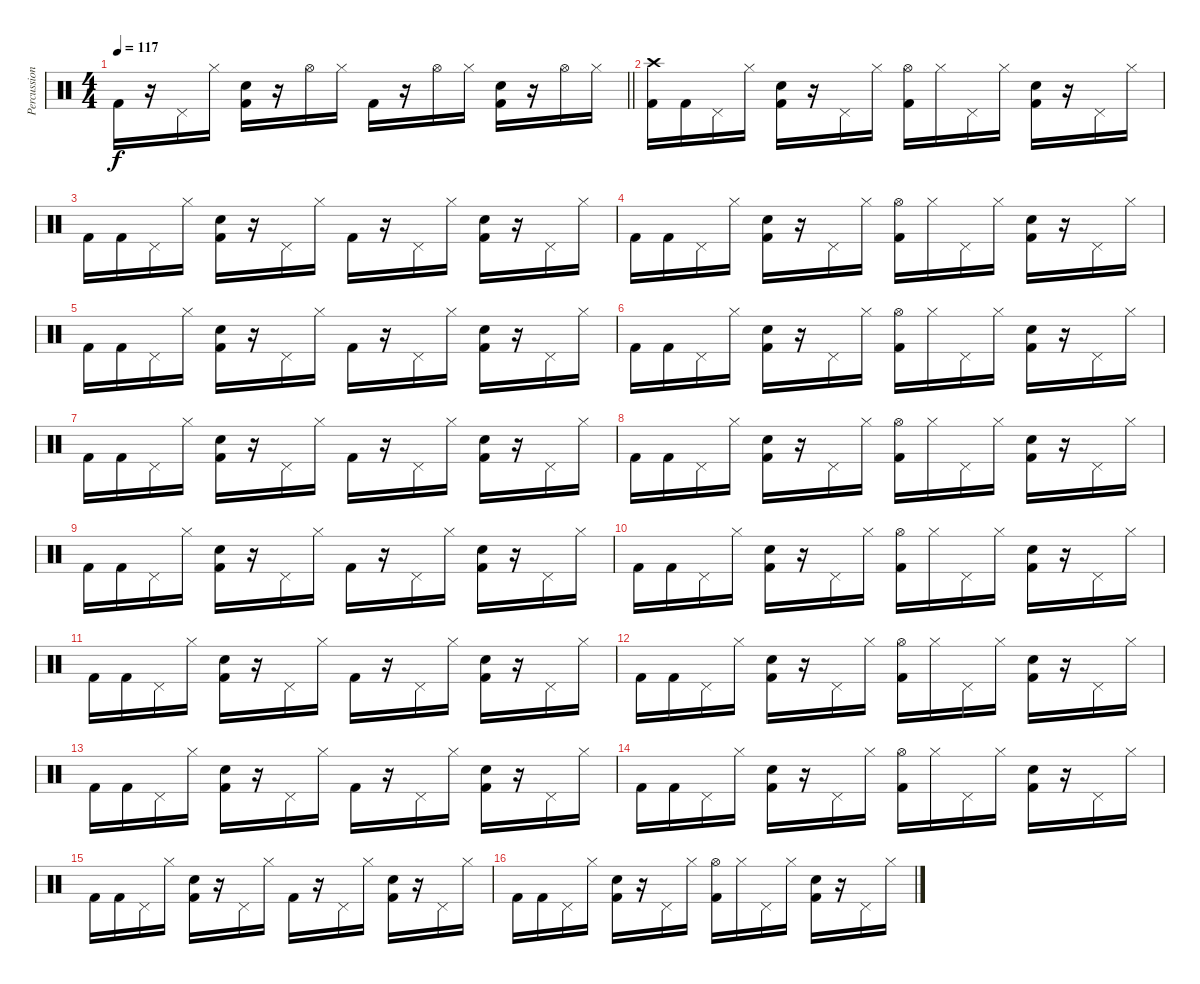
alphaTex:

\track ("Percussion" "Percussion") {instrument percussion}
\staff {score}
\articulation defaults
\ts (4 4)
\tempo 117
\clef neutral
\barLineRight lightlight
\ks c "Kick (hit) 2".16{dy f}
r.16 "Pedal Hi-Hat (hit)".16 "Hi-Hat (closed)".16 ("Snare (hit) 2" "Kick (hit) 2").16 r.16 "Hi-Hat (open)".16 "Hi-Hat (closed)".16 "Kick (hit) 2".16 r.16 "Hi-Hat (open)".16 "Hi-Hat (closed)".16 ("Snare (hit) 2" "Kick (hit) 2").16 r.16 "Hi-Hat (open)".16 "Hi-Hat (closed)".16 |
("Crash high (hit)" "Kick (hit) 2").16 "Kick (hit) 2".16 "Pedal Hi-Hat (hit)".16 "Hi-Hat (closed)".16 ("Snare (hit) 2" "Kick (hit) 2").16 r.16 "Pedal Hi-Hat (hit)".16 "Hi-Hat (closed)".16 ("Hi-Hat (open)" "Kick (hit) 2").16 "Hi-Hat (closed)".16 "Pedal Hi-Hat (hit)".16 "Hi-Hat (closed)".16 ("Snare (hit) 2" "Kick (hit) 2").16 r.16 "Pedal Hi-Hat (hit)".16 "Hi-Hat (closed)".16 |
"Kick (hit) 2".16 "Kick (hit) 2".16 "Pedal Hi-Hat (hit)".16 "Hi-Hat (closed)".16 ("Snare (hit) 2" "Kick (hit) 2").16 r.16 "Pedal Hi-Hat (hit)".16 "Hi-Hat (closed)".16 "Kick (hit) 2".16 r.16 "Pedal Hi-Hat (hit)".16 "Hi-Hat (closed)".16 ("Snare (hit) 2" "Kick (hit) 2").16 r.16 "Pedal Hi-Hat (hit)".16 "Hi-Hat (closed)".16 |
"Kick (hit) 2".16 "Kick (hit) 2".16 "Pedal Hi-Hat (hit)".16 "Hi-Hat (closed)".16 ("Snare (hit) 2" "Kick (hit) 2").16 r.16 "Pedal Hi-Hat (hit)".16 "Hi-Hat (closed)".16 ("Hi-Hat (open)" "Kick (hit) 2").16 "Hi-Hat (closed)".16 "Pedal Hi-Hat (hit)".16 "Hi-Hat (closed)".16 ("Snare (hit) 2" "Kick (hit) 2").16 r.16 "Pedal Hi-Hat (hit)".16 "Hi-Hat (closed)".16 |
"Kick (hit) 2".16 "Kick (hit) 2".16 "Pedal Hi-Hat (hit)".16 "Hi-Hat (closed)".16 ("Snare (hit) 2" "Kick (hit) 2").16 r.16 "Pedal Hi-Hat (hit)".16 "Hi-Hat (closed)".16 "Kick (hit) 2".16 r.16 "Pedal Hi-Hat (hit)".16 "Hi-Hat (closed)".16 ("Snare (hit) 2" "Kick (hit) 2").16 r.16 "Pedal Hi-Hat (hit)".16 "Hi-Hat (closed)".16 |
"Kick (hit) 2".16 "Kick (hit) 2".16 "Pedal Hi-Hat (hit)".16 "Hi-Hat (closed)".16 ("Snare (hit) 2" "Kick (hit) 2").16 r.16 "Pedal Hi-Hat (hit)".16 "Hi-Hat (closed)".16 ("Hi-Hat (open)" "Kick (hit) 2").16 "Hi-Hat (closed)".16 "Pedal Hi-Hat (hit)".16 "Hi-Hat (closed)".16 ("Snare (hit) 2" "Kick (hit) 2").16 r.16 "Pedal Hi-Hat (hit)".16 "Hi-Hat (closed)".16 |
"Kick (hit) 2".16 "Kick (hit) 2".16 "Pedal Hi-Hat (hit)".16 "Hi-Hat (closed)".16 ("Snare (hit) 2" "Kick (hit) 2").16 r.16 "Pedal Hi-Hat (hit)".16 "Hi-Hat (closed)".16 "Kick (hit) 2".16 r.16 "Pedal Hi-Hat (hit)".16 "Hi-Hat (closed)".16 ("Snare (hit) 2" "Kick (hit) 2").16 r.16 "Pedal Hi-Hat (hit)".16 "Hi-Hat (closed)".16 |
"Kick (hit) 2".16 "Kick (hit) 2".16 "Pedal Hi-Hat (hit)".16 "Hi-Hat (closed)".16 ("Snare (hit) 2" "Kick (hit) 2").16 r.16 "Pedal Hi-Hat (hit)".16 "Hi-Hat (closed)".16 ("Hi-Hat (open)" "Kick (hit) 2").16 "Hi-Hat (closed)".16 "Pedal Hi-Hat (hit)".16 "Hi-Hat (closed)".16 ("Snare (hit) 2" "Kick (hit) 2").16 r.16 "Pedal Hi-Hat (hit)".16 "Hi-Hat (closed)".16 |
"Kick (hit) 2".16 "Kick (hit) 2".16 "Pedal Hi-Hat (hit)".16 "Hi-Hat (closed)".16 ("Snare (hit) 2" "Kick (hit) 2").16 r.16 "Pedal Hi-Hat (hit)".16 "Hi-Hat (closed)".16 "Kick (hit) 2".16 r.16 "Pedal Hi-Hat (hit)".16 "Hi-Hat (closed)".16 ("Snare (hit) 2" "Kick (hit) 2").16 r.16 "Pedal Hi-Hat (hit)".16 "Hi-Hat (closed)".16 |
"Kick (hit) 2".16 "Kick (hit) 2".16 "Pedal Hi-Hat (hit)".16 "Hi-Hat (closed)".16 ("Snare (hit) 2" "Kick (hit) 2").16 r.16 "Pedal Hi-Hat (hit)".16 "Hi-Hat (closed)".16 ("Hi-Hat (open)" "Kick (hit) 2").16 "Hi-Hat (closed)".16 "Pedal Hi-Hat (hit)".16 "Hi-Hat (closed)".16 ("Snare (hit) 2" "Kick (hit) 2").16 r.16 "Pedal Hi-Hat (hit)".16 "Hi-Hat (closed)".16 |
"Kick (hit) 2".16 "Kick (hit) 2".16 "Pedal Hi-Hat (hit)".16 "Hi-Hat (closed)".16 ("Snare (hit) 2" "Kick (hit) 2").16 r.16 "Pedal Hi-Hat (hit)".16 "Hi-Hat (closed)".16 "Kick (hit) 2".16 r.16 "Pedal Hi-Hat (hit)".16 "Hi-Hat (closed)".16 ("Snare (hit) 2" "Kick (hit) 2").16 r.16 "Pedal Hi-Hat (hit)".16 "Hi-Hat (closed)".16 |
"Kick (hit) 2".16 "Kick (hit) 2".16 "Pedal Hi-Hat (hit)".16 "Hi-Hat (closed)".16 ("Snare (hit) 2" "Kick (hit) 2").16 r.16 "Pedal Hi-Hat (hit)".16 "Hi-Hat (closed)".16 ("Hi-Hat (open)" "Kick (hit) 2").16 "Hi-Hat (closed)".16 "Pedal Hi-Hat (hit)".16 "Hi-Hat (closed)".16 ("Snare (hit) 2" "Kick (hit) 2").16 r.16 "Pedal Hi-Hat (hit)".16 "Hi-Hat (closed)".16 |
"Kick (hit) 2".16 "Kick (hit) 2".16 "Pedal Hi-Hat (hit)".16 "Hi-Hat (closed)".16 ("Snare (hit) 2" "Kick (hit) 2").16 r.16 "Pedal Hi-Hat (hit)".16 "Hi-Hat (closed)".16 "Kick (hit) 2".16 r.16 "Pedal Hi-Hat (hit)".16 "Hi-Hat (closed)".16 ("Snare (hit) 2" "Kick (hit) 2").16 r.16 "Pedal Hi-Hat (hit)".16 "Hi-Hat (closed)".16 |
"Kick (hit) 2".16 "Kick (hit) 2".16 "Pedal Hi-Hat (hit)".16 "Hi-Hat (closed)".16 ("Snare (hit) 2" "Kick (hit) 2").16 r.16 "Pedal Hi-Hat (hit)".16 "Hi-Hat (closed)".16 ("Hi-Hat (open)" "Kick (hit) 2").16 "Hi-Hat (closed)".16 "Pedal Hi-Hat (hit)".16 "Hi-Hat (closed)".16 ("Snare (hit) 2" "Kick (hit) 2").16 r.16 "Pedal Hi-Hat (hit)".16 "Hi-Hat (closed)".16 |
"Kick (hit) 2".16 "Kick (hit) 2".16 "Pedal Hi-Hat (hit)".16 "Hi-Hat (closed)".16 ("Snare (hit) 2" "Kick (hit) 2").16 r.16 "Pedal Hi-Hat (hit)".16 "Hi-Hat (closed)".16 "Kick (hit) 2".16 r.16 "Pedal Hi-Hat (hit)".16 "Hi-Hat (closed)".16 ("Snare (hit) 2" "Kick (hit) 2").16 r.16 "Pedal Hi-Hat (hit)".16 "Hi-Hat (closed)".16 |
"Kick (hit) 2".16 "Kick (hit) 2".16 "Pedal Hi-Hat (hit)".16 "Hi-Hat (closed)".16 ("Snare (hit) 2" "Kick (hit) 2").16 r.16 "Pedal Hi-Hat (hit)".16 "Hi-Hat (closed)".16 ("Hi-Hat (open)" "Kick (hit) 2").16 "Hi-Hat (closed)".16 "Pedal Hi-Hat (hit)".16 "Hi-Hat (closed)".16 ("Snare (hit) 2" "Kick (hit) 2").16 r.16 "Pedal Hi-Hat (hit)".16 "Hi-Hat (closed)".16
